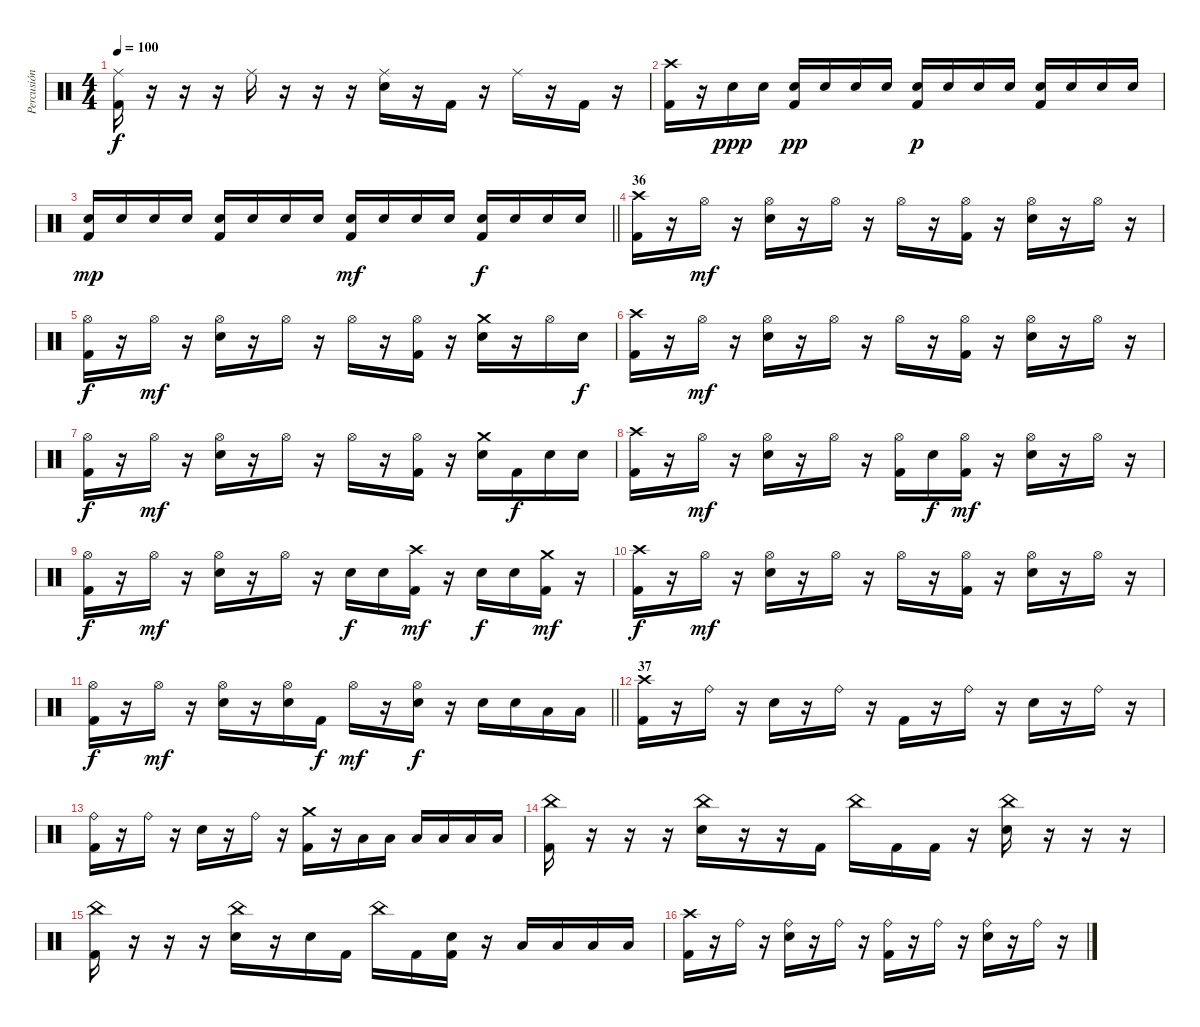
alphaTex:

\track ("Percusión" "Percusión") {instrument percussion}
\staff {score}
\articulation defaults
\ts (4 4)
\tempo 100
\clef neutral
\ks c
("Ride (middle)" "Kick (hit) 2").16{dy f} r.16 r.16 r.16 "Ride (middle)".16 r.16 r.16 r.16 ("Ride (middle)" "Electric Snare (hit)").16 r.16 "Kick (hit) 2".16 r.16 "Ride (middle)".16 r.16 "Kick (hit) 2".16 r.16 |
("Crash high (hit)" "Kick (hit) 2").16 r.16 "Electric Snare (hit)".16{dy ppp} "Electric Snare (hit)".16 ("Electric Snare (hit)" "Kick (hit) 2").16{dy pp} "Electric Snare (hit)".16 "Electric Snare (hit)".16 "Electric Snare (hit)".16 ("Electric Snare (hit)" "Kick (hit) 2").16{dy p} "Electric Snare (hit)".16 "Electric Snare (hit)".16 "Electric Snare (hit)".16 ("Electric Snare (hit)" "Kick (hit) 2").16 "Electric Snare (hit)".16 "Electric Snare (hit)".16 "Electric Snare (hit)".16 |
\barLineRight lightlight
("Electric Snare (hit)" "Kick (hit) 2").16{dy mp} "Electric Snare (hit)".16 "Electric Snare (hit)".16 "Electric Snare (hit)".16 ("Electric Snare (hit)" "Kick (hit) 2").16 "Electric Snare (hit)".16 "Electric Snare (hit)".16 "Electric Snare (hit)".16 ("Electric Snare (hit)" "Kick (hit) 2").16{dy mf} "Electric Snare (hit)".16 "Electric Snare (hit)".16 "Electric Snare (hit)".16 ("Electric Snare (hit)" "Kick (hit) 2").16{dy f} "Electric Snare (hit)".16 "Electric Snare (hit)".16 "Electric Snare (hit)".16 |
\section ("" "36")
("Crash high (hit)" "Kick (hit) 2").16 r.16 "Hi-Hat (open)".16{dy mf} r.16 ("Hi-Hat (open)" "Electric Snare (hit)").16 r.16 "Hi-Hat (open)".16 r.16 "Hi-Hat (open)".16 r.16 ("Hi-Hat (open)" "Kick (hit) 2").16 r.16 ("Hi-Hat (open)" "Electric Snare (hit)").16 r.16 "Hi-Hat (open)".16 r.16 |
("Hi-Hat (open)" "Kick (hit) 2").16{dy f} r.16 "Hi-Hat (open)".16{dy mf} r.16 ("Hi-Hat (open)" "Electric Snare (hit)").16 r.16 "Hi-Hat (open)".16 r.16 "Hi-Hat (open)".16 r.16 ("Hi-Hat (open)" "Kick (hit) 2").16 r.16 ("Crash medium (hit)" "Electric Snare (hit)").16 r.16 "Hi-Hat (open)".16 "Electric Snare (hit)".16{dy f} |
("Crash high (hit)" "Kick (hit) 2").16 r.16 "Hi-Hat (open)".16{dy mf} r.16 ("Hi-Hat (open)" "Electric Snare (hit)").16 r.16 "Hi-Hat (open)".16 r.16 "Hi-Hat (open)".16 r.16 ("Hi-Hat (open)" "Kick (hit) 2").16 r.16 ("Hi-Hat (open)" "Electric Snare (hit)").16 r.16 "Hi-Hat (open)".16 r.16 |
("Hi-Hat (open)" "Kick (hit) 2").16{dy f} r.16 "Hi-Hat (open)".16{dy mf} r.16 ("Hi-Hat (open)" "Electric Snare (hit)").16 r.16 "Hi-Hat (open)".16 r.16 "Hi-Hat (open)".16 r.16 ("Hi-Hat (open)" "Kick (hit) 2").16 r.16 ("Crash medium (hit)" "Electric Snare (hit)").16 "Kick (hit) 2".16{dy f} "Electric Snare (hit)".16 "Electric Snare (hit)".16 |
("Crash high (hit)" "Kick (hit) 2").16 r.16 "Hi-Hat (open)".16{dy mf} r.16 ("Hi-Hat (open)" "Electric Snare (hit)").16 r.16 "Hi-Hat (open)".16 r.16 ("Hi-Hat (open)" "Kick (hit) 2").16 "Electric Snare (hit)".16{dy f} ("Hi-Hat (open)" "Kick (hit) 2").16{dy mf} r.16 ("Hi-Hat (open)" "Electric Snare (hit)").16 r.16 "Hi-Hat (open)".16 r.16 |
("Hi-Hat (open)" "Kick (hit) 2").16{dy f} r.16 "Hi-Hat (open)".16{dy mf} r.16 ("Hi-Hat (open)" "Electric Snare (hit)").16 r.16 "Hi-Hat (open)".16 r.16 "Electric Snare (hit)".16{dy f} "Electric Snare (hit)".16 ("Crash high (hit)" "Kick (hit) 2").16{dy mf} r.16 "Electric Snare (hit)".16{dy f} "Electric Snare (hit)".16 ("Crash medium (hit)" "Kick (hit) 2").16{dy mf} r.16 |
("Crash high (hit)" "Kick (hit) 2").16{dy f} r.16 "Hi-Hat (open)".16{dy mf} r.16 ("Hi-Hat (open)" "Electric Snare (hit)").16 r.16 "Hi-Hat (open)".16 r.16 "Hi-Hat (open)".16 r.16 ("Hi-Hat (open)" "Kick (hit) 2").16 r.16 ("Hi-Hat (open)" "Electric Snare (hit)").16 r.16 "Hi-Hat (open)".16 r.16 |
\barLineRight lightlight
("Hi-Hat (open)" "Kick (hit) 2").16{dy f} r.16 "Hi-Hat (open)".16{dy mf} r.16 ("Hi-Hat (open)" "Electric Snare (hit)").16 r.16 ("Hi-Hat (open)" "Electric Snare (hit)").16 "Kick (hit) 2".16{dy f} "Hi-Hat (open)".16{dy mf} r.16 ("Hi-Hat (open)" "Electric Snare (hit)").16{dy f} r.16 "Electric Snare (hit)".16 "Electric Snare (hit)".16 "Low Tom (hit)".16 "Low Tom (hit)".16 |
\section ("" "37")
("Crash high (hit)" "Kick (hit) 2").16 r.16 "Ride (bell)".16 r.16 "Electric Snare (hit)".16 r.16 "Ride (bell)".16 r.16 "Kick (hit) 2".16 r.16 "Ride (bell)".16 r.16 "Electric Snare (hit)".16 r.16 "Ride (bell)".16 r.16 |
("Ride (bell)" "Kick (hit) 2").16 r.16 "Ride (bell)".16 r.16 "Electric Snare (hit)".16 r.16 "Ride (bell)".16 r.16 ("Crash medium (hit)" "Kick (hit) 2").16 r.16 "Low Tom (hit)".16 "Low Tom (hit)".16 "Low Tom (hit)".16 "Low Tom (hit)".16 "Low Tom (hit)".16 "Low Tom (hit)".16 |
("China (hit)" "Kick (hit) 2").16 r.16 r.16 r.16 ("China (hit)" "Electric Snare (hit)").16 r.16 r.16 "Kick (hit) 2".16 "China (hit)".16 "Kick (hit) 2".16 "Kick (hit) 2".16 r.16 ("China (hit)" "Electric Snare (hit)").16 r.16 r.16 r.16 |
("China (hit)" "Kick (hit) 2").16 r.16 r.16 r.16 ("China (hit)" "Electric Snare (hit)").16 r.16 "Electric Snare (hit)".16 "Kick (hit) 2".16 "China (hit)".16 "Kick (hit) 2".16 ("Electric Snare (hit)" "Kick (hit) 2").16 r.16 "Low Tom (hit)".16 "Low Tom (hit)".16 "Low Tom (hit)".16 "Low Tom (hit)".16 |
("Crash high (hit)" "Kick (hit) 2").16 r.16 "Ride (bell)".16 r.16 ("Ride (bell)" "Electric Snare (hit)").16 r.16 "Ride (bell)".16 r.16 ("Ride (bell)" "Kick (hit) 2").16 r.16 "Ride (bell)".16 r.16 ("Ride (bell)" "Electric Snare (hit)").16 r.16 "Ride (bell)".16 r.16
